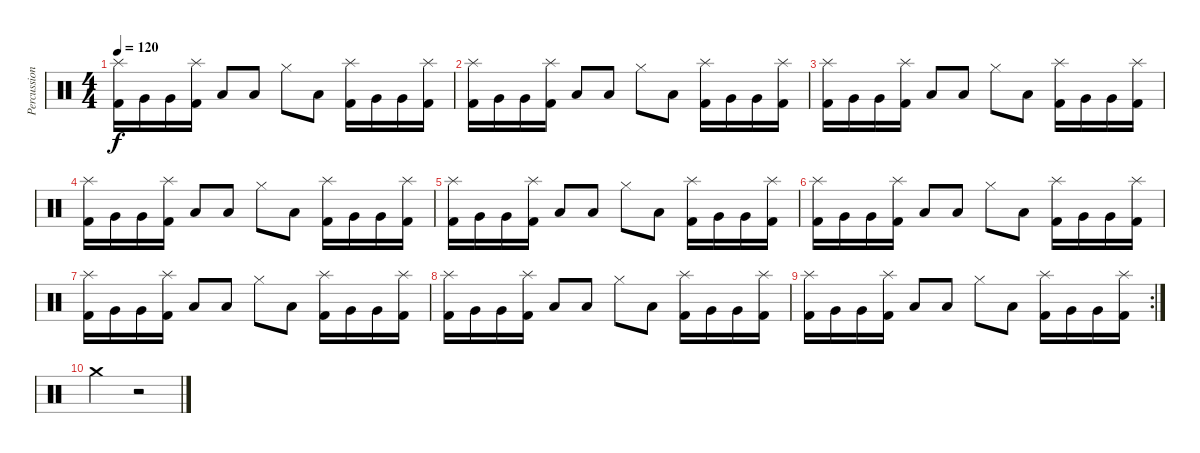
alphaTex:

\track ("Percussion" "Percussion") {instrument percussion}
\staff {score}
\articulation defaults
\ts (4 4)
\tempo 120
\clef neutral
\ks c
("Kick (hit) 2" "Splash (hit)").16{dy f} "Very Low Tom (hit)".16 "Very Low Tom (hit)".16 ("Kick (hit) 2" "Splash (hit)").16 "Low Floor Tom (hit)".8 "Low Floor Tom (hit)".8 "Hi-Hat (closed)".8 "Low Floor Tom (hit)".8 ("Kick (hit) 2" "Splash (hit)").16 "Very Low Tom (hit)".16 "Very Low Tom (hit)".16 ("Kick (hit) 2" "Splash (hit)").16 |
("Kick (hit) 2" "Splash (hit)").16 "Very Low Tom (hit)".16 "Very Low Tom (hit)".16 ("Kick (hit) 2" "Splash (hit)").16 "Low Floor Tom (hit)".8 "Low Floor Tom (hit)".8 "Hi-Hat (closed)".8 "Low Floor Tom (hit)".8 ("Kick (hit) 2" "Splash (hit)").16 "Very Low Tom (hit)".16 "Very Low Tom (hit)".16 ("Kick (hit) 2" "Splash (hit)").16 |
("Kick (hit) 2" "Splash (hit)").16 "Very Low Tom (hit)".16 "Very Low Tom (hit)".16 ("Kick (hit) 2" "Splash (hit)").16 "Low Floor Tom (hit)".8 "Low Floor Tom (hit)".8 "Hi-Hat (closed)".8 "Low Floor Tom (hit)".8 ("Kick (hit) 2" "Splash (hit)").16 "Very Low Tom (hit)".16 "Very Low Tom (hit)".16 ("Kick (hit) 2" "Splash (hit)").16 |
("Kick (hit) 2" "Splash (hit)").16 "Very Low Tom (hit)".16 "Very Low Tom (hit)".16 ("Kick (hit) 2" "Splash (hit)").16 "Low Floor Tom (hit)".8 "Low Floor Tom (hit)".8 "Hi-Hat (closed)".8 "Low Floor Tom (hit)".8 ("Kick (hit) 2" "Splash (hit)").16 "Very Low Tom (hit)".16 "Very Low Tom (hit)".16 ("Kick (hit) 2" "Splash (hit)").16 |
("Kick (hit) 2" "Splash (hit)").16 "Very Low Tom (hit)".16 "Very Low Tom (hit)".16 ("Kick (hit) 2" "Splash (hit)").16 "Low Floor Tom (hit)".8 "Low Floor Tom (hit)".8 "Hi-Hat (closed)".8 "Low Floor Tom (hit)".8 ("Kick (hit) 2" "Splash (hit)").16 "Very Low Tom (hit)".16 "Very Low Tom (hit)".16 ("Kick (hit) 2" "Splash (hit)").16 |
("Kick (hit) 2" "Splash (hit)").16 "Very Low Tom (hit)".16 "Very Low Tom (hit)".16 ("Kick (hit) 2" "Splash (hit)").16 "Low Floor Tom (hit)".8 "Low Floor Tom (hit)".8 "Hi-Hat (closed)".8 "Low Floor Tom (hit)".8 ("Kick (hit) 2" "Splash (hit)").16 "Very Low Tom (hit)".16 "Very Low Tom (hit)".16 ("Kick (hit) 2" "Splash (hit)").16 |
("Kick (hit) 2" "Splash (hit)").16 "Very Low Tom (hit)".16 "Very Low Tom (hit)".16 ("Kick (hit) 2" "Splash (hit)").16 "Low Floor Tom (hit)".8 "Low Floor Tom (hit)".8 "Hi-Hat (closed)".8 "Low Floor Tom (hit)".8 ("Kick (hit) 2" "Splash (hit)").16 "Very Low Tom (hit)".16 "Very Low Tom (hit)".16 ("Kick (hit) 2" "Splash (hit)").16 |
("Kick (hit) 2" "Splash (hit)").16 "Very Low Tom (hit)".16 "Very Low Tom (hit)".16 ("Kick (hit) 2" "Splash (hit)").16 "Low Floor Tom (hit)".8 "Low Floor Tom (hit)".8 "Hi-Hat (closed)".8 "Low Floor Tom (hit)".8 ("Kick (hit) 2" "Splash (hit)").16 "Very Low Tom (hit)".16 "Very Low Tom (hit)".16 ("Kick (hit) 2" "Splash (hit)").16 |
\rc 2
("Kick (hit) 2" "Splash (hit)").16 "Very Low Tom (hit)".16 "Very Low Tom (hit)".16 ("Kick (hit) 2" "Splash (hit)").16 "Low Floor Tom (hit)".8 "Low Floor Tom (hit)".8 "Hi-Hat (closed)".8 "Low Floor Tom (hit)".8 ("Kick (hit) 2" "Splash (hit)").16 "Very Low Tom (hit)".16 "Very Low Tom (hit)".16 ("Kick (hit) 2" "Splash (hit)").16 |
"Crash medium (hit)".2 r.2
